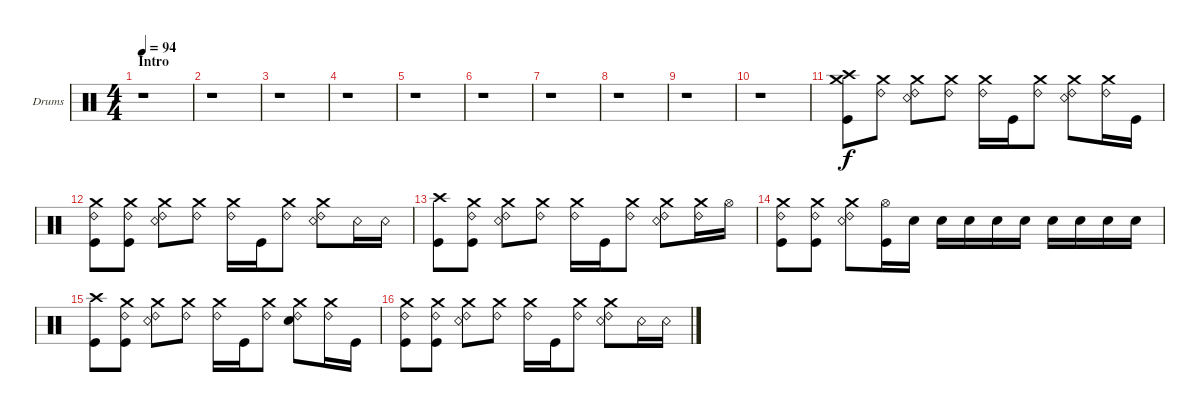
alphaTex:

\bracketExtendMode groupsimilarinstruments
\firstSystemTrackNameOrientation horizontal
\otherSystemsTrackNameOrientation horizontal
\track ("Drumkit" "Drums") {instrument percussion}
\staff {score}
\articulation defaults
\ts (4 4)
\beaming (8 2 2 2 2)
\section ("" "Intro")
\tempo 94
\clef neutral
\ks c
r.1{dy f} |
r.1 |
r.1 |
r.1 |
r.1 |
r.1 |
r.1 |
r.1 |
r.1 |
r.1 |
("Crash high (hit)" "Crash medium (hit)" "Kick (hit)").8 ("Crash medium (hit)" "Ride (bell) 2").8 ("Crash medium (hit)" "Snare (rim shot)" "Ride (bell) 2").8 ("Crash medium (hit)" "Ride (bell) 2").8 ("Crash medium (hit)" "Ride (bell) 2").16 "Kick (hit)".16 ("Crash medium (hit)" "Ride (bell) 2").8 ("Crash medium (hit)" "Snare (rim shot)" "Ride (bell) 2").8 ("Crash medium (hit)" "Ride (bell) 2").16 "Kick (hit)".16 |
("Crash medium (hit)" "Kick (hit)" "Ride (bell) 2").8 ("Crash medium (hit)" "Kick (hit)" "Ride (bell) 2").8 ("Crash medium (hit)" "Snare (rim shot)" "Ride (bell) 2").8 ("Crash medium (hit)" "Ride (bell) 2").8 ("Crash medium (hit)" "Ride (bell) 2").16 "Kick (hit)".16 ("Crash medium (hit)" "Ride (bell) 2").8 ("Crash medium (hit)" "Snare (rim shot)" "Ride (bell) 2").8 "Snare (rim shot)".16 "Snare (rim shot)".16 |
("Crash high (hit)" "Kick (hit)").8 ("Crash medium (hit)" "Kick (hit)" "Ride (bell) 2").8 ("Crash medium (hit)" "Ride (bell) 2" "Snare (rim shot)").8 ("Crash medium (hit)" "Ride (bell) 2").8 ("Crash medium (hit)" "Ride (bell) 2").16 "Kick (hit)".16 ("Crash medium (hit)" "Ride (bell) 2").8 ("Crash medium (hit)" "Snare (rim shot)" "Ride (bell) 2").8 ("Crash medium (hit)" "Ride (bell) 2").16 "Hi-Hat (open)".16 |
("Crash medium (hit)" "Kick (hit)" "Ride (bell) 2").8 ("Crash medium (hit)" "Kick (hit)" "Ride (bell) 2").8 ("Crash medium (hit)" "Snare (rim shot)" "Ride (bell) 2").8 ("Hi-Hat (open)" "Kick (hit)").16 "Snare (hit) 2".16 "Snare (hit) 2".16 "Snare (hit) 2".16 "Snare (hit) 2".16 "Snare (hit) 2".16 "Snare (hit) 2".16 "Snare (hit) 2".16 "Snare (hit) 2".16 "Snare (hit) 2".16 |
("Crash high (hit)" "Kick (hit)").8 ("Crash medium (hit)" "Kick (hit)" "Ride (bell) 2").8 ("Crash medium (hit)" "Snare (rim shot)" "Ride (bell) 2").8 ("Crash medium (hit)" "Ride (bell) 2").8 ("Crash medium (hit)" "Ride (bell) 2").16 "Kick (hit)".16 ("Crash medium (hit)" "Ride (bell) 2").8 ("Crash medium (hit)" "Snare (hit) 2" "Ride (bell) 2").8 ("Crash medium (hit)" "Ride (bell) 2").16 "Kick (hit)".16 |
("Crash medium (hit)" "Kick (hit)" "Ride (bell) 2").8 ("Crash medium (hit)" "Kick (hit)" "Ride (bell) 2").8 ("Crash medium (hit)" "Snare (rim shot)" "Ride (bell) 2").8 ("Crash medium (hit)" "Ride (bell) 2").8 ("Crash medium (hit)" "Ride (bell) 2").16 "Kick (hit)".16 ("Crash medium (hit)" "Ride (bell) 2").8 ("Crash medium (hit)" "Snare (rim shot)" "Ride (bell) 2").8 "Snare (rim shot)".16 "Snare (rim shot)".16
